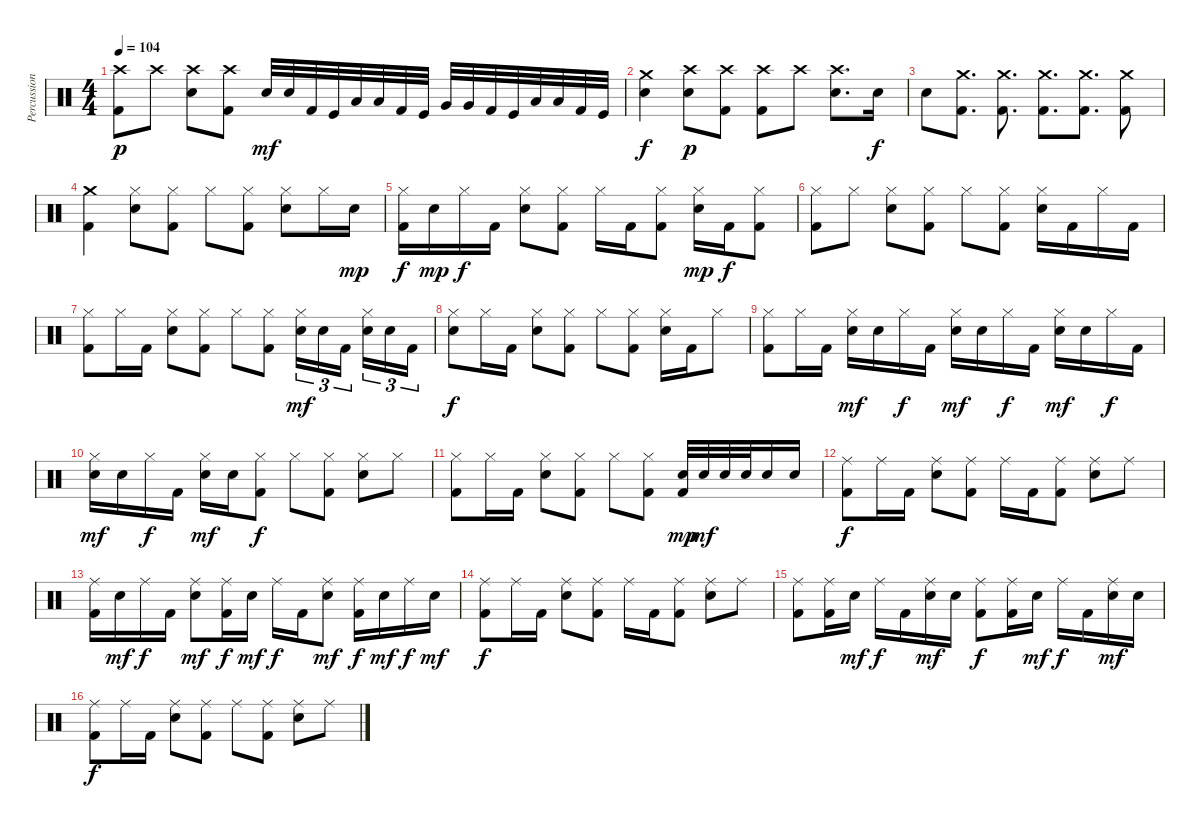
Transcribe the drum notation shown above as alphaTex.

\track ("Percussion" "Percussion") {instrument percussion}
\staff {score}
\articulation defaults
\ts (4 4)
\tempo 104
\clef neutral
\ks c
("Kick (hit) 2" "Crash high (hit)").8{dy p} "Crash high (hit)".8 ("Electric Snare (hit)" "Crash high (hit)").8 ("Kick (hit) 2" "Crash high (hit)").8 "Electric Snare (hit)".32{dy mf} "Electric Snare (hit)".32 "Kick (hit) 2".32 "Kick (hit)".32 "Low Tom (hit)".32 "Low Tom (hit)".32 "Kick (hit) 2".32 "Kick (hit)".32 "Very Low Tom (hit)".32 "Very Low Tom (hit)".32 "Kick (hit) 2".32 "Kick (hit)".32 "Low Floor Tom (hit)".32 "Low Floor Tom (hit)".32 "Kick (hit) 2".32 "Kick (hit)".32 |
("Electric Snare (hit)" "Crash medium (hit)").4{dy f} ("Electric Snare (hit)" "Crash high (hit)").8{dy p} ("Kick (hit) 2" "Crash high (hit)").8 ("Kick (hit) 2" "Crash high (hit)").8 "Crash high (hit)".8 ("Electric Snare (hit)" "Crash high (hit)").8{d} "Electric Snare (hit)".16{dy f} |
"Electric Snare (hit)".8 ("Kick (hit) 2" "Crash medium (hit)").8{d} ("Kick (hit) 2" "Crash medium (hit)").8{d} ("Kick (hit) 2" "Crash medium (hit)").8{d} ("Kick (hit) 2" "Crash medium (hit)").8{d} ("Kick (hit) 2" "Crash medium (hit)").8 |
("Kick (hit) 2" "Crash medium (hit)").4 ("Electric Snare (hit)" "Hi-Hat (closed)").8 ("Kick (hit) 2" "Hi-Hat (closed)").8 "Hi-Hat (closed)".8 ("Kick (hit) 2" "Hi-Hat (closed)").8 ("Electric Snare (hit)" "Hi-Hat (closed)").8 "Hi-Hat (closed)".16 "Electric Snare (hit)".16{dy mp} |
("Kick (hit) 2" "Hi-Hat (closed)").16{dy f} "Electric Snare (hit)".16{dy mp} "Hi-Hat (closed)".16{dy f} "Kick (hit) 2".16 ("Electric Snare (hit)" "Hi-Hat (closed)").8 ("Kick (hit) 2" "Hi-Hat (closed)").8 "Hi-Hat (closed)".16 "Kick (hit) 2".16 ("Kick (hit) 2" "Hi-Hat (closed)").8 ("Electric Snare (hit)" "Hi-Hat (closed)").16{dy mp} "Kick (hit) 2".16{dy f} ("Kick (hit) 2" "Hi-Hat (closed)").8 |
("Kick (hit) 2" "Hi-Hat (closed)").8 "Hi-Hat (closed)".8 ("Electric Snare (hit)" "Hi-Hat (closed)").8 ("Kick (hit) 2" "Hi-Hat (closed)").8 "Hi-Hat (closed)".8 ("Kick (hit) 2" "Hi-Hat (closed)").8 ("Electric Snare (hit)" "Hi-Hat (closed)").16 "Kick (hit) 2".16 "Hi-Hat (closed)".16 "Kick (hit) 2".16 |
("Kick (hit) 2" "Hi-Hat (closed)").8 "Hi-Hat (closed)".16 "Kick (hit) 2".16 ("Electric Snare (hit)" "Hi-Hat (closed)").8 ("Kick (hit) 2" "Hi-Hat (closed)").8 "Hi-Hat (closed)".8 ("Kick (hit) 2" "Hi-Hat (closed)").8 ("Electric Snare (hit)" "Hi-Hat (closed)").16{tu (3 2) dy mf} "Electric Snare (hit)".16{tu (3 2)} "Kick (hit) 2".16{tu (3 2)} ("Electric Snare (hit)" "Hi-Hat (closed)").16{tu (3 2)} "Electric Snare (hit)".16{tu (3 2)} "Kick (hit) 2".16{tu (3 2)} |
("Electric Snare (hit)" "Hi-Hat (closed)").8{dy f} "Hi-Hat (closed)".16 "Kick (hit) 2".16 ("Electric Snare (hit)" "Hi-Hat (closed)").8 ("Kick (hit) 2" "Hi-Hat (closed)").8 "Hi-Hat (closed)".8 ("Kick (hit) 2" "Hi-Hat (closed)").8 ("Electric Snare (hit)" "Hi-Hat (closed)").16 "Kick (hit) 2".16 "Hi-Hat (closed)".8 |
("Kick (hit) 2" "Hi-Hat (closed)").8 "Hi-Hat (closed)".16 "Kick (hit) 2".16 ("Electric Snare (hit)" "Hi-Hat (closed)").16{dy mf} "Electric Snare (hit)".16 "Hi-Hat (closed)".16{dy f} "Kick (hit) 2".16 ("Electric Snare (hit)" "Hi-Hat (closed)").16{dy mf} "Electric Snare (hit)".16 "Hi-Hat (closed)".16{dy f} "Kick (hit) 2".16 ("Electric Snare (hit)" "Hi-Hat (closed)").16{dy mf} "Electric Snare (hit)".16 "Hi-Hat (closed)".16{dy f} "Kick (hit) 2".16 |
("Electric Snare (hit)" "Hi-Hat (closed)").16{dy mf} "Electric Snare (hit)".16 "Hi-Hat (closed)".16{dy f} "Kick (hit) 2".16 ("Electric Snare (hit)" "Hi-Hat (closed)").16{dy mf} "Electric Snare (hit)".16 ("Kick (hit) 2" "Hi-Hat (closed)").8{dy f} "Hi-Hat (closed)".8 ("Kick (hit) 2" "Hi-Hat (closed)").8 ("Electric Snare (hit)" "Hi-Hat (closed)").8 "Hi-Hat (closed)".8 |
("Kick (hit) 2" "Hi-Hat (closed)").8 "Hi-Hat (closed)".16 "Kick (hit) 2".16 ("Electric Snare (hit)" "Hi-Hat (closed)").8 ("Kick (hit) 2" "Hi-Hat (closed)").8 "Hi-Hat (closed)".8 ("Kick (hit) 2" "Hi-Hat (closed)").8 ("Kick (hit) 2" "Electric Snare (hit)").32{dy mp} "Electric Snare (hit)".32{dy mf} "Electric Snare (hit)".32 "Electric Snare (hit)".32 "Electric Snare (hit)".16 "Electric Snare (hit)".16 |
("Kick (hit) 2" "Ride (middle)").8{dy f} "Ride (middle)".16 "Kick (hit) 2".16 ("Electric Snare (hit)" "Ride (middle)").8 ("Kick (hit) 2" "Ride (middle)").8 "Ride (middle)".16 "Kick (hit) 2".16 ("Kick (hit) 2" "Ride (middle)").8 ("Electric Snare (hit)" "Ride (middle)").8 "Ride (middle)".8 |
("Kick (hit) 2" "Ride (middle)").16 "Electric Snare (hit)".16{dy mf} "Ride (middle)".16{dy f} "Kick (hit) 2".16 ("Electric Snare (hit)" "Ride (middle)").8{dy mf} ("Kick (hit) 2" "Ride (middle)").16{dy f} "Electric Snare (hit)".16{dy mf} "Ride (middle)".16{dy f} "Kick (hit) 2".16 ("Electric Snare (hit)" "Ride (middle)").8{dy mf} ("Kick (hit) 2" "Ride (middle)").16{dy f} "Electric Snare (hit)".16{dy mf} "Ride (middle)".16{dy f} "Electric Snare (hit)".16{dy mf} |
("Kick (hit) 2" "Ride (middle)").8{dy f} "Ride (middle)".16 "Kick (hit) 2".16 ("Electric Snare (hit)" "Ride (middle)").8 ("Kick (hit) 2" "Ride (middle)").8 "Ride (middle)".16 "Kick (hit) 2".16 ("Kick (hit) 2" "Ride (middle)").8 ("Electric Snare (hit)" "Ride (middle)").8 "Ride (middle)".8 |
("Kick (hit) 2" "Ride (middle)").8 ("Kick (hit) 2" "Ride (middle)").16 "Electric Snare (hit)".16{dy mf} "Ride (middle)".16{dy f} "Kick (hit) 2".16 ("Electric Snare (hit)" "Ride (middle)").16{dy mf} "Electric Snare (hit)".16 ("Kick (hit) 2" "Ride (middle)").8{dy f} ("Kick (hit) 2" "Ride (middle)").16 "Electric Snare (hit)".16{dy mf} "Ride (middle)".16{dy f} "Kick (hit) 2".16 ("Electric Snare (hit)" "Ride (middle)").16{dy mf} "Electric Snare (hit)".16 |
("Kick (hit) 2" "Ride (middle)").8{dy f} "Ride (middle)".16 "Kick (hit) 2".16 ("Electric Snare (hit)" "Ride (middle)").8 ("Kick (hit) 2" "Ride (middle)").8 "Ride (middle)".8 ("Kick (hit) 2" "Ride (middle)").8 ("Electric Snare (hit)" "Ride (middle)").8 "Ride (middle)".8
